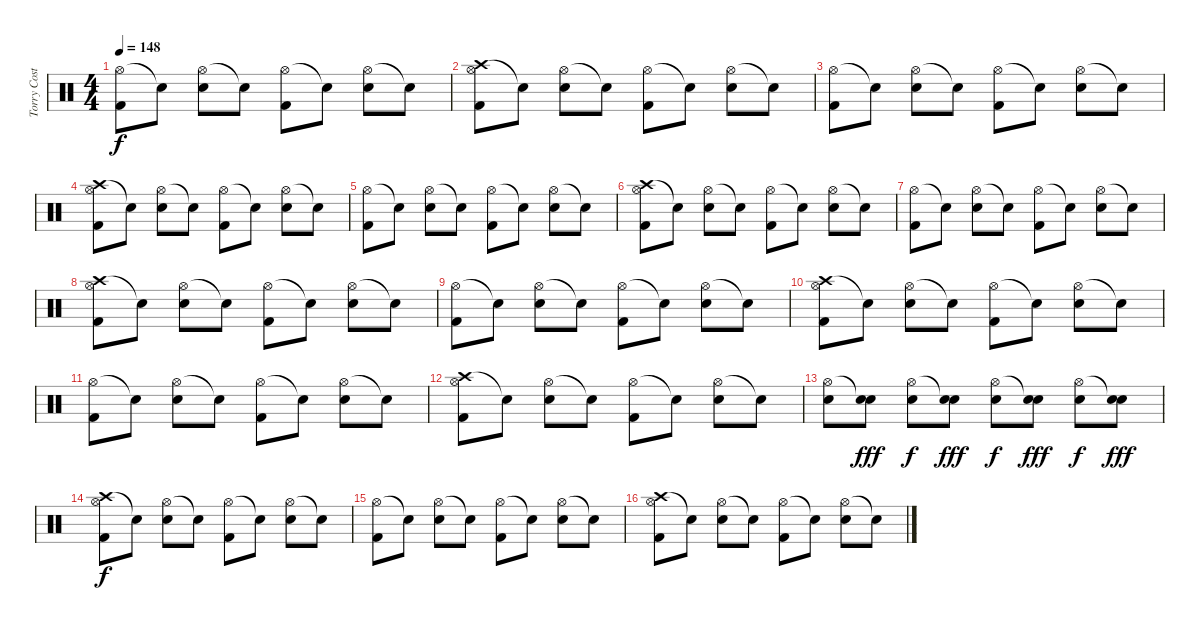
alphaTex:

\track ("Torry Costellano" "Torry Cost") {instrument percussion bank 127}
\staff {score}
\articulation defaults
\ts (4 4)
\tempo 148
\clef neutral
\ks c
("Hi-Hat (open)" "Kick (hit) 2").8{dy f} "Snare (hit)"{t}.8 ("Hi-Hat (open)" "Electric Snare (hit)").8 "Snare (hit)"{t}.8 ("Hi-Hat (open)" "Kick (hit) 2").8 "Snare (hit)"{t}.8 ("Hi-Hat (open)" "Electric Snare (hit)").8 "Snare (hit)"{t}.8 |
("Crash high (hit)" "Hi-Hat (open)" "Kick (hit) 2").8 "Snare (hit)"{t}.8 ("Hi-Hat (open)" "Electric Snare (hit)").8 "Snare (hit)"{t}.8 ("Hi-Hat (open)" "Kick (hit) 2").8 "Snare (hit)"{t}.8 ("Hi-Hat (open)" "Electric Snare (hit)").8 "Snare (hit)"{t}.8 |
("Hi-Hat (open)" "Kick (hit) 2").8 "Snare (hit)"{t}.8 ("Hi-Hat (open)" "Electric Snare (hit)").8 "Snare (hit)"{t}.8 ("Hi-Hat (open)" "Kick (hit) 2").8 "Snare (hit)"{t}.8 ("Hi-Hat (open)" "Electric Snare (hit)").8 "Snare (hit)"{t}.8 |
("Crash high (hit)" "Hi-Hat (open)" "Kick (hit) 2").8 "Snare (hit)"{t}.8 ("Hi-Hat (open)" "Electric Snare (hit)").8 "Snare (hit)"{t}.8 ("Hi-Hat (open)" "Kick (hit) 2").8 "Snare (hit)"{t}.8 ("Hi-Hat (open)" "Electric Snare (hit)").8 "Snare (hit)"{t}.8 |
("Hi-Hat (open)" "Kick (hit) 2").8 "Snare (hit)"{t}.8 ("Hi-Hat (open)" "Electric Snare (hit)").8 "Snare (hit)"{t}.8 ("Hi-Hat (open)" "Kick (hit) 2").8 "Snare (hit)"{t}.8 ("Hi-Hat (open)" "Electric Snare (hit)").8 "Snare (hit)"{t}.8 |
("Crash high (hit)" "Hi-Hat (open)" "Kick (hit) 2").8 "Snare (hit)"{t}.8 ("Hi-Hat (open)" "Electric Snare (hit)").8 "Snare (hit)"{t}.8 ("Hi-Hat (open)" "Kick (hit) 2").8 "Snare (hit)"{t}.8 ("Hi-Hat (open)" "Electric Snare (hit)").8 "Snare (hit)"{t}.8 |
("Hi-Hat (open)" "Kick (hit) 2").8 "Snare (hit)"{t}.8 ("Hi-Hat (open)" "Electric Snare (hit)").8 "Snare (hit)"{t}.8 ("Hi-Hat (open)" "Kick (hit) 2").8 "Snare (hit)"{t}.8 ("Hi-Hat (open)" "Electric Snare (hit)").8 "Snare (hit)"{t}.8 |
("Crash high (hit)" "Hi-Hat (open)" "Kick (hit) 2").8 "Snare (hit)"{t}.8 ("Hi-Hat (open)" "Electric Snare (hit)").8 "Snare (hit)"{t}.8 ("Hi-Hat (open)" "Kick (hit) 2").8 "Snare (hit)"{t}.8 ("Hi-Hat (open)" "Electric Snare (hit)").8 "Snare (hit)"{t}.8 |
("Hi-Hat (open)" "Kick (hit) 2").8 "Snare (hit)"{t}.8 ("Hi-Hat (open)" "Electric Snare (hit)").8 "Snare (hit)"{t}.8 ("Hi-Hat (open)" "Kick (hit) 2").8 "Snare (hit)"{t}.8 ("Hi-Hat (open)" "Electric Snare (hit)").8 "Snare (hit)"{t}.8 |
("Crash high (hit)" "Hi-Hat (open)" "Kick (hit) 2").8 "Snare (hit)"{t}.8 ("Hi-Hat (open)" "Electric Snare (hit)").8 "Snare (hit)"{t}.8 ("Hi-Hat (open)" "Kick (hit) 2").8 "Snare (hit)"{t}.8 ("Hi-Hat (open)" "Electric Snare (hit)").8 "Snare (hit)"{t}.8 |
("Hi-Hat (open)" "Kick (hit) 2").8 "Snare (hit)"{t}.8 ("Hi-Hat (open)" "Electric Snare (hit)").8 "Snare (hit)"{t}.8 ("Hi-Hat (open)" "Kick (hit) 2").8 "Snare (hit)"{t}.8 ("Hi-Hat (open)" "Electric Snare (hit)").8 "Snare (hit)"{t}.8 |
("Crash high (hit)" "Hi-Hat (open)" "Kick (hit) 2").8 "Snare (hit)"{t}.8 ("Hi-Hat (open)" "Electric Snare (hit)").8 "Snare (hit)"{t}.8 ("Hi-Hat (open)" "Kick (hit) 2").8 "Snare (hit)"{t}.8 ("Hi-Hat (open)" "Electric Snare (hit)").8 "Snare (hit)"{t}.8 |
("Hi-Hat (open)" "Electric Snare (hit)").8 ("Snare (hit)"{t} "Electric Snare (hit)").8{dy fff} ("Hi-Hat (open)" "Electric Snare (hit)").8{dy f} ("Snare (hit)"{t} "Electric Snare (hit)").8{dy fff} ("Hi-Hat (open)" "Electric Snare (hit)").8{dy f} ("Snare (hit)"{t} "Electric Snare (hit)").8{dy fff} ("Hi-Hat (open)" "Electric Snare (hit)").8{dy f} ("Snare (hit)"{t} "Electric Snare (hit)").8{dy fff} |
("Crash high (hit)" "Hi-Hat (open)" "Kick (hit) 2").8{dy f} "Snare (hit)"{t}.8 ("Hi-Hat (open)" "Electric Snare (hit)").8 "Snare (hit)"{t}.8 ("Hi-Hat (open)" "Kick (hit) 2").8 "Snare (hit)"{t}.8 ("Hi-Hat (open)" "Electric Snare (hit)").8 "Snare (hit)"{t}.8 |
("Hi-Hat (open)" "Kick (hit) 2").8 "Snare (hit)"{t}.8 ("Hi-Hat (open)" "Electric Snare (hit)").8 "Snare (hit)"{t}.8 ("Hi-Hat (open)" "Kick (hit) 2").8 "Snare (hit)"{t}.8 ("Hi-Hat (open)" "Electric Snare (hit)").8 "Snare (hit)"{t}.8 |
("Crash high (hit)" "Hi-Hat (open)" "Kick (hit) 2").8 "Snare (hit)"{t}.8 ("Hi-Hat (open)" "Electric Snare (hit)").8 "Snare (hit)"{t}.8 ("Hi-Hat (open)" "Kick (hit) 2").8 "Snare (hit)"{t}.8 ("Hi-Hat (open)" "Electric Snare (hit)").8 "Snare (hit)"{t}.8
